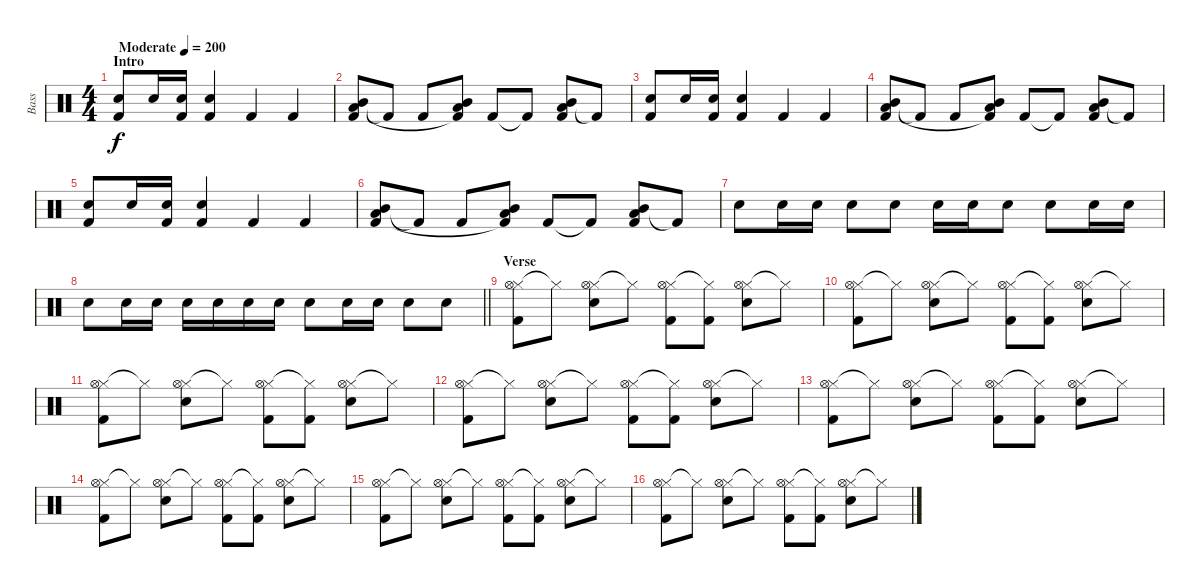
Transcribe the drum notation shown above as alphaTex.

\track ("Bass" "Bass") {instrument percussion}
\staff {score}
\articulation defaults
\ts (4 4)
\section ("" "Intro")
\tempo (200 "Moderate")
\clef neutral
\ks c
("Snare (hit) 2" "Kick (hit) 2").8{dy f} "Snare (hit) 2".16 ("Snare (hit) 2" "Kick (hit) 2").16 ("Snare (hit) 2" "Kick (hit) 2").4 "Kick (hit) 2".4 "Kick (hit) 2".4 |
("Mid Tom (hit)" "Low Floor Tom (hit)" "Kick (hit) 2").8 "Kick (hit) 2"{t}.8 "Kick (hit) 2".8 ("Mid Tom (hit)" "Low Floor Tom (hit)" "Kick (hit) 2"{t}).8 "Kick (hit) 2".8 "Kick (hit) 2"{t}.8 ("Mid Tom (hit)" "Low Floor Tom (hit)" "Kick (hit) 2").8 "Kick (hit) 2"{t}.8 |
("Snare (hit) 2" "Kick (hit) 2").8 "Snare (hit) 2".16 ("Snare (hit) 2" "Kick (hit) 2").16 ("Snare (hit) 2" "Kick (hit) 2").4 "Kick (hit) 2".4 "Kick (hit) 2".4 |
("Mid Tom (hit)" "Low Floor Tom (hit)" "Kick (hit) 2").8 "Kick (hit) 2"{t}.8 "Kick (hit) 2".8 ("Mid Tom (hit)" "Low Floor Tom (hit)" "Kick (hit) 2"{t}).8 "Kick (hit) 2".8 "Kick (hit) 2"{t}.8 ("Mid Tom (hit)" "Low Floor Tom (hit)" "Kick (hit) 2").8 "Kick (hit) 2"{t}.8 |
("Snare (hit) 2" "Kick (hit) 2").8 "Snare (hit) 2".16 ("Snare (hit) 2" "Kick (hit) 2").16 ("Snare (hit) 2" "Kick (hit) 2").4 "Kick (hit) 2".4 "Kick (hit) 2".4 |
("Mid Tom (hit)" "Low Floor Tom (hit)" "Kick (hit) 2").8 "Kick (hit) 2"{t}.8 "Kick (hit) 2".8 ("Mid Tom (hit)" "Low Floor Tom (hit)" "Kick (hit) 2"{t}).8 "Kick (hit) 2".8 "Kick (hit) 2"{t}.8 ("Mid Tom (hit)" "Low Floor Tom (hit)" "Kick (hit) 2").8 "Kick (hit) 2"{t}.8 |
"Snare (hit) 2".8 "Snare (hit) 2".16 "Snare (hit) 2".16 "Snare (hit) 2".8 "Snare (hit) 2".8 "Snare (hit) 2".16 "Snare (hit) 2".16 "Snare (hit) 2".8 "Snare (hit) 2".8 "Snare (hit) 2".16 "Snare (hit) 2".16 |
\barLineRight lightlight "Snare (hit) 2".8 "Snare (hit) 2".16 "Snare (hit) 2".16 "Snare (hit) 2".16 "Snare (hit) 2".16 "Snare (hit) 2".16 "Snare (hit) 2".16 "Snare (hit) 2".8 "Snare (hit) 2".16 "Snare (hit) 2".16 "Snare (hit) 2".8 "Snare (hit) 2".8
|
\section ("" "Verse")
("Hi-Hat (closed)" "Hi-Hat (open)" "Kick (hit) 2").8 "Hi-Hat (closed)"{t}.8 ("Hi-Hat (closed)" "Hi-Hat (open)" "Snare (hit) 2").8 "Hi-Hat (closed)"{t}.8 ("Hi-Hat (closed)" "Hi-Hat (open)" "Kick (hit) 2").8 ("Hi-Hat (closed)"{t} "Kick (hit) 2").8 ("Hi-Hat (closed)" "Hi-Hat (open)" "Snare (hit) 2").8 "Hi-Hat (closed)"{t}.8 |
("Hi-Hat (closed)" "Hi-Hat (open)" "Kick (hit) 2").8 "Hi-Hat (closed)"{t}.8 ("Hi-Hat (closed)" "Hi-Hat (open)" "Snare (hit) 2").8 "Hi-Hat (closed)"{t}.8 ("Hi-Hat (closed)" "Hi-Hat (open)" "Kick (hit) 2").8 ("Hi-Hat (closed)"{t} "Kick (hit) 2").8 ("Hi-Hat (closed)" "Hi-Hat (open)" "Snare (hit) 2").8 "Hi-Hat (closed)"{t}.8 |
("Hi-Hat (closed)" "Hi-Hat (open)" "Kick (hit) 2").8 "Hi-Hat (closed)"{t}.8 ("Hi-Hat (closed)" "Hi-Hat (open)" "Snare (hit) 2").8 "Hi-Hat (closed)"{t}.8 ("Hi-Hat (closed)" "Hi-Hat (open)" "Kick (hit) 2").8 ("Hi-Hat (closed)"{t} "Kick (hit) 2").8 ("Hi-Hat (closed)" "Hi-Hat (open)" "Snare (hit) 2").8 "Hi-Hat (closed)"{t}.8 |
("Hi-Hat (closed)" "Hi-Hat (open)" "Kick (hit) 2").8 "Hi-Hat (closed)"{t}.8 ("Hi-Hat (closed)" "Hi-Hat (open)" "Snare (hit) 2").8 "Hi-Hat (closed)"{t}.8 ("Hi-Hat (closed)" "Hi-Hat (open)" "Kick (hit) 2").8 ("Hi-Hat (closed)"{t} "Kick (hit) 2").8 ("Hi-Hat (closed)" "Hi-Hat (open)" "Snare (hit) 2").8 "Hi-Hat (closed)"{t}.8 |
("Hi-Hat (closed)" "Hi-Hat (open)" "Kick (hit) 2").8 "Hi-Hat (closed)"{t}.8 ("Hi-Hat (closed)" "Hi-Hat (open)" "Snare (hit) 2").8 "Hi-Hat (closed)"{t}.8 ("Hi-Hat (closed)" "Hi-Hat (open)" "Kick (hit) 2").8 ("Hi-Hat (closed)"{t} "Kick (hit) 2").8 ("Hi-Hat (closed)" "Hi-Hat (open)" "Snare (hit) 2").8 "Hi-Hat (closed)"{t}.8 |
("Hi-Hat (closed)" "Hi-Hat (open)" "Kick (hit) 2").8 "Hi-Hat (closed)"{t}.8 ("Hi-Hat (closed)" "Hi-Hat (open)" "Snare (hit) 2").8 "Hi-Hat (closed)"{t}.8 ("Hi-Hat (closed)" "Hi-Hat (open)" "Kick (hit) 2").8 ("Hi-Hat (closed)"{t} "Kick (hit) 2").8 ("Hi-Hat (closed)" "Hi-Hat (open)" "Snare (hit) 2").8 "Hi-Hat (closed)"{t}.8 |
("Hi-Hat (closed)" "Hi-Hat (open)" "Kick (hit) 2").8 "Hi-Hat (closed)"{t}.8 ("Hi-Hat (closed)" "Hi-Hat (open)" "Snare (hit) 2").8 "Hi-Hat (closed)"{t}.8 ("Hi-Hat (closed)" "Hi-Hat (open)" "Kick (hit) 2").8 ("Hi-Hat (closed)"{t} "Kick (hit) 2").8 ("Hi-Hat (closed)" "Hi-Hat (open)" "Snare (hit) 2").8 "Hi-Hat (closed)"{t}.8 |
("Hi-Hat (closed)" "Hi-Hat (open)" "Kick (hit) 2").8 "Hi-Hat (closed)"{t}.8 ("Hi-Hat (closed)" "Hi-Hat (open)" "Snare (hit) 2").8 "Hi-Hat (closed)"{t}.8 ("Hi-Hat (closed)" "Hi-Hat (open)" "Kick (hit) 2").8 ("Hi-Hat (closed)"{t} "Kick (hit) 2").8 ("Hi-Hat (closed)" "Hi-Hat (open)" "Snare (hit) 2").8 "Hi-Hat (closed)"{t}.8
